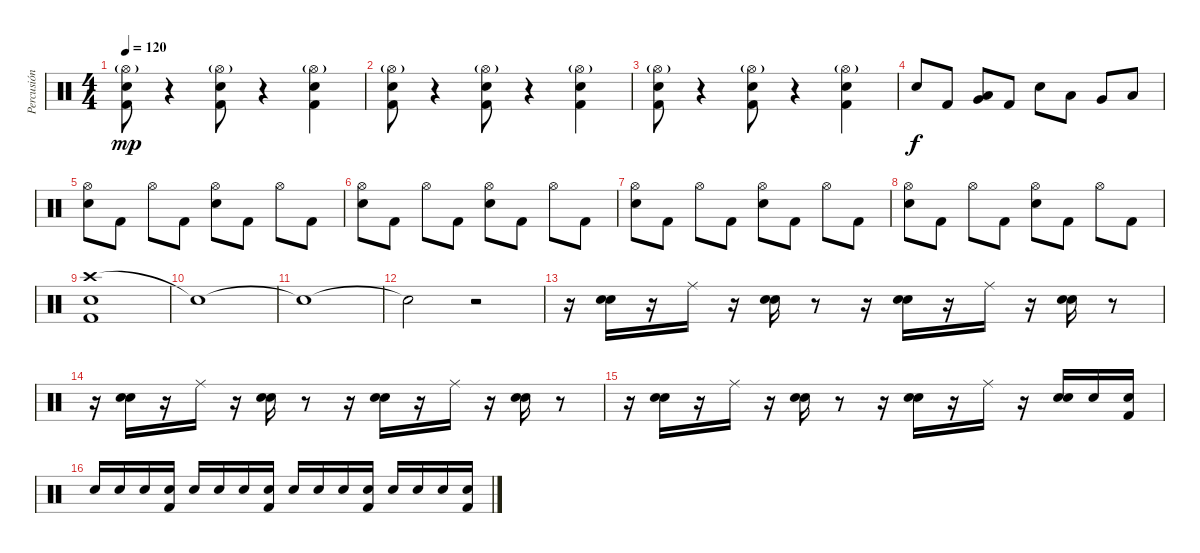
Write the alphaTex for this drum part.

\track ("Percusión" "Percusión") {instrument percussion}
\staff {score}
\articulation defaults
\ts (4 4)
\tempo 120
\clef neutral
\ks c
("Hi-Hat (open)"{g} "Kick (hit) 2" "Electric Snare (hit)").8{dy mp} r.4 ("Hi-Hat (open)"{g} "Kick (hit) 2" "Electric Snare (hit)").8 r.4 ("Hi-Hat (open)"{g} "Kick (hit) 2" "Electric Snare (hit)").4 |
("Hi-Hat (open)"{g} "Kick (hit) 2" "Electric Snare (hit)").8 r.4 ("Hi-Hat (open)"{g} "Kick (hit) 2" "Electric Snare (hit)").8 r.4 ("Hi-Hat (open)"{g} "Kick (hit) 2" "Electric Snare (hit)").4 |
("Hi-Hat (open)"{g} "Kick (hit) 2" "Electric Snare (hit)").8 r.4 ("Hi-Hat (open)"{g} "Kick (hit) 2" "Electric Snare (hit)").8 r.4 ("Hi-Hat (open)"{g} "Kick (hit) 2" "Electric Snare (hit)").4 |
"Electric Snare (hit)".8{dy f} "Kick (hit) 2".8 ("Low Tom (hit)" "Very Low Tom (hit)").8 "Kick (hit) 2".8 "Electric Snare (hit)".8 "Low Tom (hit)".8 "Very Low Tom (hit)".8 "Low Floor Tom (hit)".8 |
("Hi-Hat (open)" "Electric Snare (hit)").8 "Kick (hit) 2".8 "Hi-Hat (open)".8 "Kick (hit) 2".8 ("Hi-Hat (open)" "Electric Snare (hit)").8 "Kick (hit) 2".8 "Hi-Hat (open)".8 "Kick (hit) 2".8 |
("Hi-Hat (open)" "Electric Snare (hit)").8 "Kick (hit) 2".8 "Hi-Hat (open)".8 "Kick (hit) 2".8 ("Hi-Hat (open)" "Electric Snare (hit)").8 "Kick (hit) 2".8 "Hi-Hat (open)".8 "Kick (hit) 2".8 |
("Hi-Hat (open)" "Electric Snare (hit)").8 "Kick (hit) 2".8 "Hi-Hat (open)".8 "Kick (hit) 2".8 ("Hi-Hat (open)" "Electric Snare (hit)").8 "Kick (hit) 2".8 "Hi-Hat (open)".8 "Kick (hit) 2".8 |
("Hi-Hat (open)" "Electric Snare (hit)").8 "Kick (hit) 2".8 "Hi-Hat (open)".8 "Kick (hit) 2".8 ("Hi-Hat (open)" "Electric Snare (hit)").8 "Kick (hit) 2".8 "Hi-Hat (open)".8 "Kick (hit) 2".8 |
("Crash high (hit)" "Kick (hit) 2" "Electric Snare (hit)").1 |
"Snare (hit)"{t}.1 |
"Snare (hit)"{t}.1 |
"Snare (hit)"{t}.2 r.2 |
r.16 ("Hand Clap (hit)" "Electric Snare (hit)").16 r.16 "Ride (middle)".16 r.16 ("Hand Clap (hit)" "Electric Snare (hit)").16 r.8 r.16 ("Hand Clap (hit)" "Electric Snare (hit)").16 r.16 "Ride (middle)".16 r.16 ("Hand Clap (hit)" "Electric Snare (hit)").16 r.8 |
r.16 ("Hand Clap (hit)" "Electric Snare (hit)").16 r.16 "Ride (middle)".16 r.16 ("Hand Clap (hit)" "Electric Snare (hit)").16 r.8 r.16 ("Hand Clap (hit)" "Electric Snare (hit)").16 r.16 "Ride (middle)".16 r.16 ("Hand Clap (hit)" "Electric Snare (hit)").16 r.8 |
r.16 ("Hand Clap (hit)" "Electric Snare (hit)").16 r.16 "Ride (middle)".16 r.16 ("Hand Clap (hit)" "Electric Snare (hit)").16 r.8 r.16 ("Hand Clap (hit)" "Electric Snare (hit)").16 r.16 "Ride (middle)".16 r.16 ("Hand Clap (hit)" "Electric Snare (hit)").16 "Electric Snare (hit)".16 ("Electric Snare (hit)" "Kick (hit) 2").16 |
"Electric Snare (hit)".16 "Electric Snare (hit)".16 "Electric Snare (hit)".16 ("Electric Snare (hit)" "Kick (hit) 2").16 "Electric Snare (hit)".16 "Electric Snare (hit)".16 "Electric Snare (hit)".16 ("Electric Snare (hit)" "Kick (hit) 2").16 "Electric Snare (hit)".16 "Electric Snare (hit)".16 "Electric Snare (hit)".16 ("Electric Snare (hit)" "Kick (hit) 2").16 "Electric Snare (hit)".16 "Electric Snare (hit)".16 "Electric Snare (hit)".16 ("Electric Snare (hit)" "Kick (hit) 2").16
